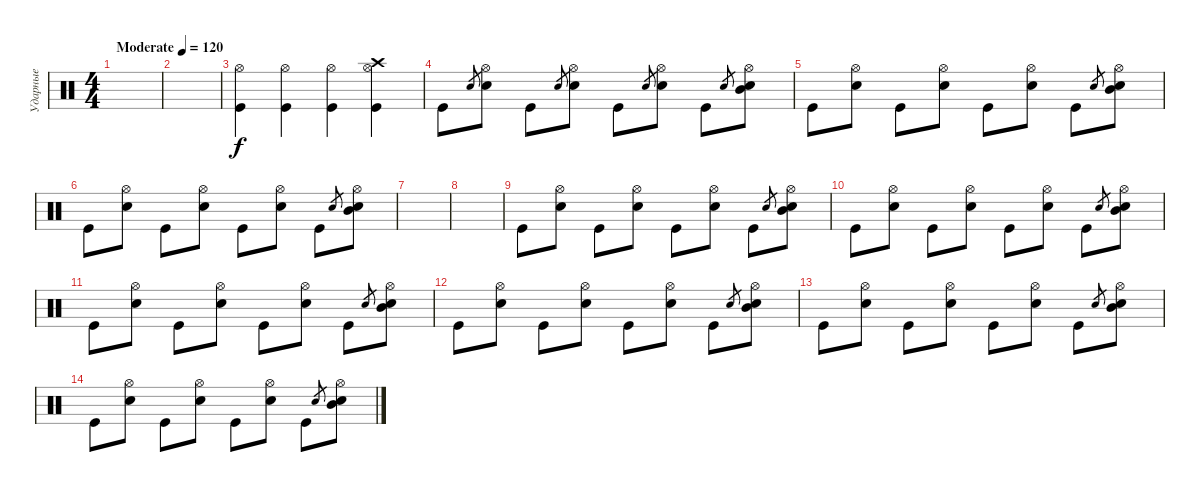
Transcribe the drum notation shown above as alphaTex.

\track ("Ударные" "Ударные") {instrument percussion}
\staff {score}
\articulation defaults
\ts (4 4)
\tempo (120 "Moderate")
\clef neutral
\ks c
|
|
("Kick (hit)" "Hi-Hat (open)").4 ("Kick (hit)" "Hi-Hat (open)").4 ("Kick (hit)" "Hi-Hat (open)").4 ("Kick (hit)" "Hi-Hat (open)" "Crash high (hit)").4 |
"Kick (hit)".8 "Electric Snare (hit)".8{gr} ("Hi-Hat (open)" "Electric Snare (hit)").8 "Kick (hit)".8 "Electric Snare (hit)".8{gr} ("Hi-Hat (open)" "Electric Snare (hit)").8 "Kick (hit)".8 "Electric Snare (hit)".8{gr} ("Hi-Hat (open)" "Electric Snare (hit)").8 "Kick (hit)".8 "Electric Snare (hit)".8{gr} ("Mid Tom (hit)" "Hi-Hat (open)" "Electric Snare (hit)").8 |
"Kick (hit)".8 ("Hi-Hat (open)" "Electric Snare (hit)").8 "Kick (hit)".8 ("Hi-Hat (open)" "Electric Snare (hit)").8 "Kick (hit)".8 ("Hi-Hat (open)" "Electric Snare (hit)").8 "Kick (hit)".8 "Electric Snare (hit)".8{gr} ("Mid Tom (hit)" "Hi-Hat (open)" "Electric Snare (hit)").8 |
"Kick (hit)".8 ("Hi-Hat (open)" "Electric Snare (hit)").8 "Kick (hit)".8 ("Hi-Hat (open)" "Electric Snare (hit)").8 "Kick (hit)".8 ("Hi-Hat (open)" "Electric Snare (hit)").8 "Kick (hit)".8 "Electric Snare (hit)".8{gr} ("Mid Tom (hit)" "Hi-Hat (open)" "Electric Snare (hit)").8 |
|
|
"Kick (hit)".8 ("Hi-Hat (open)" "Electric Snare (hit)").8 "Kick (hit)".8 ("Hi-Hat (open)" "Electric Snare (hit)").8 "Kick (hit)".8 ("Hi-Hat (open)" "Electric Snare (hit)").8 "Kick (hit)".8 "Electric Snare (hit)".8{gr} ("Mid Tom (hit)" "Hi-Hat (open)" "Electric Snare (hit)").8 |
"Kick (hit)".8 ("Hi-Hat (open)" "Electric Snare (hit)").8 "Kick (hit)".8 ("Hi-Hat (open)" "Electric Snare (hit)").8 "Kick (hit)".8 ("Hi-Hat (open)" "Electric Snare (hit)").8 "Kick (hit)".8 "Electric Snare (hit)".8{gr} ("Mid Tom (hit)" "Hi-Hat (open)" "Electric Snare (hit)").8 |
"Kick (hit)".8 ("Hi-Hat (open)" "Electric Snare (hit)").8 "Kick (hit)".8 ("Hi-Hat (open)" "Electric Snare (hit)").8 "Kick (hit)".8 ("Hi-Hat (open)" "Electric Snare (hit)").8 "Kick (hit)".8 "Electric Snare (hit)".8{gr} ("Mid Tom (hit)" "Hi-Hat (open)" "Electric Snare (hit)").8 |
"Kick (hit)".8 ("Hi-Hat (open)" "Electric Snare (hit)").8 "Kick (hit)".8 ("Hi-Hat (open)" "Electric Snare (hit)").8 "Kick (hit)".8 ("Hi-Hat (open)" "Electric Snare (hit)").8 "Kick (hit)".8 "Electric Snare (hit)".8{gr} ("Mid Tom (hit)" "Hi-Hat (open)" "Electric Snare (hit)").8 |
"Kick (hit)".8 ("Hi-Hat (open)" "Electric Snare (hit)").8 "Kick (hit)".8 ("Hi-Hat (open)" "Electric Snare (hit)").8 "Kick (hit)".8 ("Hi-Hat (open)" "Electric Snare (hit)").8 "Kick (hit)".8 "Electric Snare (hit)".8{gr} ("Mid Tom (hit)" "Hi-Hat (open)" "Electric Snare (hit)").8 |
"Kick (hit)".8 ("Hi-Hat (open)" "Electric Snare (hit)").8 "Kick (hit)".8 ("Hi-Hat (open)" "Electric Snare (hit)").8 "Kick (hit)".8 ("Hi-Hat (open)" "Electric Snare (hit)").8 "Kick (hit)".8 "Electric Snare (hit)".8{gr} ("Mid Tom (hit)" "Hi-Hat (open)" "Electric Snare (hit)").8
